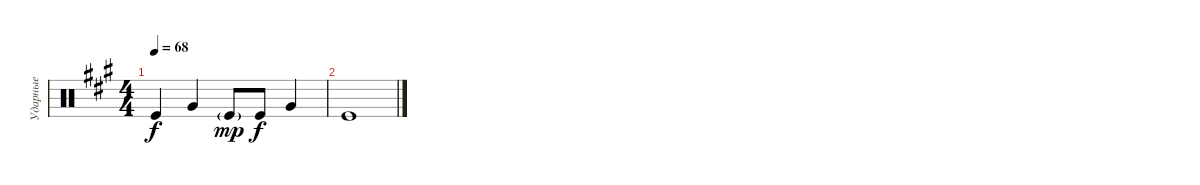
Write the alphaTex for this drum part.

\track ("Ударные" "Ударные") {instrument percussion}
\staff
\articulation defaults
\ts (4 4)
\tempo 68
\clef neutral
\ks a "Kick (hit)".4{dy f} "Very Low Tom (hit)".4 "Kick (hit)"{g}.8{dy mp} "Kick (hit)".8{dy f} "Very Low Tom (hit)".4
|
"Kick (hit)".1
